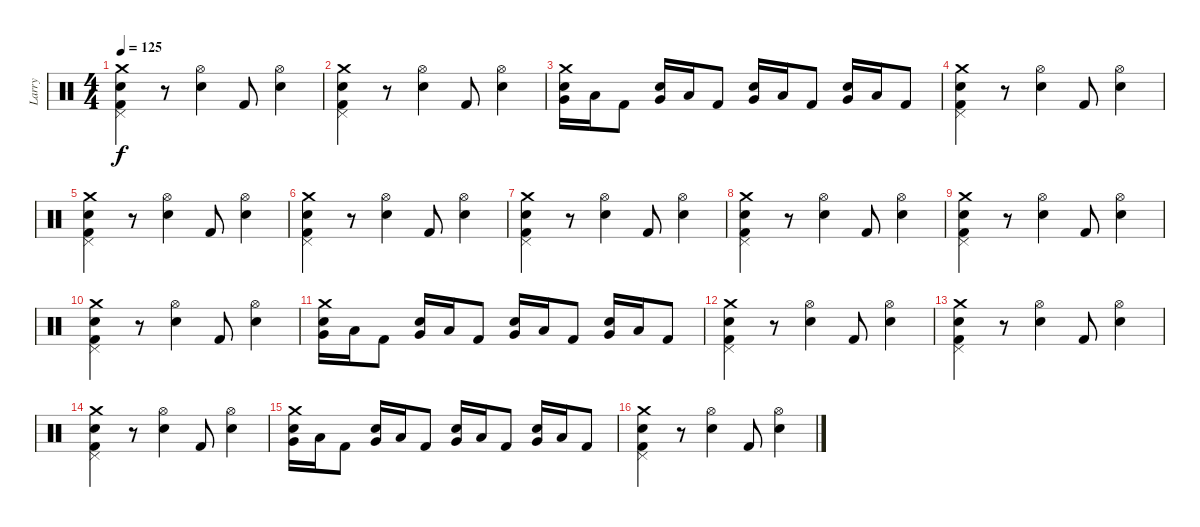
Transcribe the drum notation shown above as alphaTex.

\track ("Larry" "Larry") {instrument percussion}
\staff {score}
\articulation defaults
\ts (4 4)
\tempo 125
\clef neutral
\ks c
("Crash medium (hit)" "Electric Snare (hit)" "Kick (hit) 2" "Pedal Hi-Hat (hit)").4{dy f} r.8 ("Hi-Hat (open)" "Electric Snare (hit)").4 "Kick (hit) 2".8 ("Hi-Hat (open)" "Electric Snare (hit)").4 |
("Crash medium (hit)" "Electric Snare (hit)" "Kick (hit) 2" "Pedal Hi-Hat (hit)").4 r.8 ("Hi-Hat (open)" "Electric Snare (hit)").4 "Kick (hit) 2".8 ("Hi-Hat (open)" "Electric Snare (hit)").4 |
("Crash medium (hit)" "Very Low Tom (hit)" "Electric Snare (hit)").16 "Low Tom (hit)".16 "Kick (hit) 2".8 ("Very Low Tom (hit)" "Electric Snare (hit)").16 "Low Tom (hit)".16 "Kick (hit) 2".8 ("Very Low Tom (hit)" "Electric Snare (hit)").16 "Low Tom (hit)".16 "Kick (hit) 2".8 ("Very Low Tom (hit)" "Electric Snare (hit)").16 "Low Tom (hit)".16 "Kick (hit) 2".8 |
("Crash medium (hit)" "Electric Snare (hit)" "Kick (hit) 2" "Pedal Hi-Hat (hit)").4 r.8 ("Hi-Hat (open)" "Electric Snare (hit)").4 "Kick (hit) 2".8 ("Hi-Hat (open)" "Electric Snare (hit)").4 |
("Crash medium (hit)" "Electric Snare (hit)" "Kick (hit) 2" "Pedal Hi-Hat (hit)").4 r.8 ("Hi-Hat (open)" "Electric Snare (hit)").4 "Kick (hit) 2".8 ("Hi-Hat (open)" "Electric Snare (hit)").4 |
("Crash medium (hit)" "Electric Snare (hit)" "Kick (hit) 2" "Pedal Hi-Hat (hit)").4 r.8 ("Hi-Hat (open)" "Electric Snare (hit)").4 "Kick (hit) 2".8 ("Hi-Hat (open)" "Electric Snare (hit)").4 |
("Crash medium (hit)" "Electric Snare (hit)" "Kick (hit) 2" "Pedal Hi-Hat (hit)").4 r.8 ("Hi-Hat (open)" "Electric Snare (hit)").4 "Kick (hit) 2".8 ("Hi-Hat (open)" "Electric Snare (hit)").4 |
("Crash medium (hit)" "Electric Snare (hit)" "Kick (hit) 2" "Pedal Hi-Hat (hit)").4 r.8 ("Hi-Hat (open)" "Electric Snare (hit)").4 "Kick (hit) 2".8 ("Hi-Hat (open)" "Electric Snare (hit)").4 |
("Crash medium (hit)" "Electric Snare (hit)" "Kick (hit) 2" "Pedal Hi-Hat (hit)").4 r.8 ("Hi-Hat (open)" "Electric Snare (hit)").4 "Kick (hit) 2".8 ("Hi-Hat (open)" "Electric Snare (hit)").4 |
("Crash medium (hit)" "Electric Snare (hit)" "Kick (hit) 2" "Pedal Hi-Hat (hit)").4 r.8 ("Hi-Hat (open)" "Electric Snare (hit)").4 "Kick (hit) 2".8 ("Hi-Hat (open)" "Electric Snare (hit)").4 |
("Crash medium (hit)" "Very Low Tom (hit)" "Electric Snare (hit)").16 "Low Tom (hit)".16 "Kick (hit) 2".8 ("Very Low Tom (hit)" "Electric Snare (hit)").16 "Low Tom (hit)".16 "Kick (hit) 2".8 ("Very Low Tom (hit)" "Electric Snare (hit)").16 "Low Tom (hit)".16 "Kick (hit) 2".8 ("Very Low Tom (hit)" "Electric Snare (hit)").16 "Low Tom (hit)".16 "Kick (hit) 2".8 |
("Crash medium (hit)" "Electric Snare (hit)" "Kick (hit) 2" "Pedal Hi-Hat (hit)").4 r.8 ("Hi-Hat (open)" "Electric Snare (hit)").4 "Kick (hit) 2".8 ("Hi-Hat (open)" "Electric Snare (hit)").4 |
("Crash medium (hit)" "Electric Snare (hit)" "Kick (hit) 2" "Pedal Hi-Hat (hit)").4 r.8 ("Hi-Hat (open)" "Electric Snare (hit)").4 "Kick (hit) 2".8 ("Hi-Hat (open)" "Electric Snare (hit)").4 |
("Crash medium (hit)" "Electric Snare (hit)" "Kick (hit) 2" "Pedal Hi-Hat (hit)").4 r.8 ("Hi-Hat (open)" "Electric Snare (hit)").4 "Kick (hit) 2".8 ("Hi-Hat (open)" "Electric Snare (hit)").4 |
("Crash medium (hit)" "Very Low Tom (hit)" "Electric Snare (hit)").16 "Low Tom (hit)".16 "Kick (hit) 2".8 ("Very Low Tom (hit)" "Electric Snare (hit)").16 "Low Tom (hit)".16 "Kick (hit) 2".8 ("Very Low Tom (hit)" "Electric Snare (hit)").16 "Low Tom (hit)".16 "Kick (hit) 2".8 ("Very Low Tom (hit)" "Electric Snare (hit)").16 "Low Tom (hit)".16 "Kick (hit) 2".8 |
("Crash medium (hit)" "Electric Snare (hit)" "Kick (hit) 2" "Pedal Hi-Hat (hit)").4 r.8 ("Hi-Hat (open)" "Electric Snare (hit)").4 "Kick (hit) 2".8 ("Hi-Hat (open)" "Electric Snare (hit)").4
